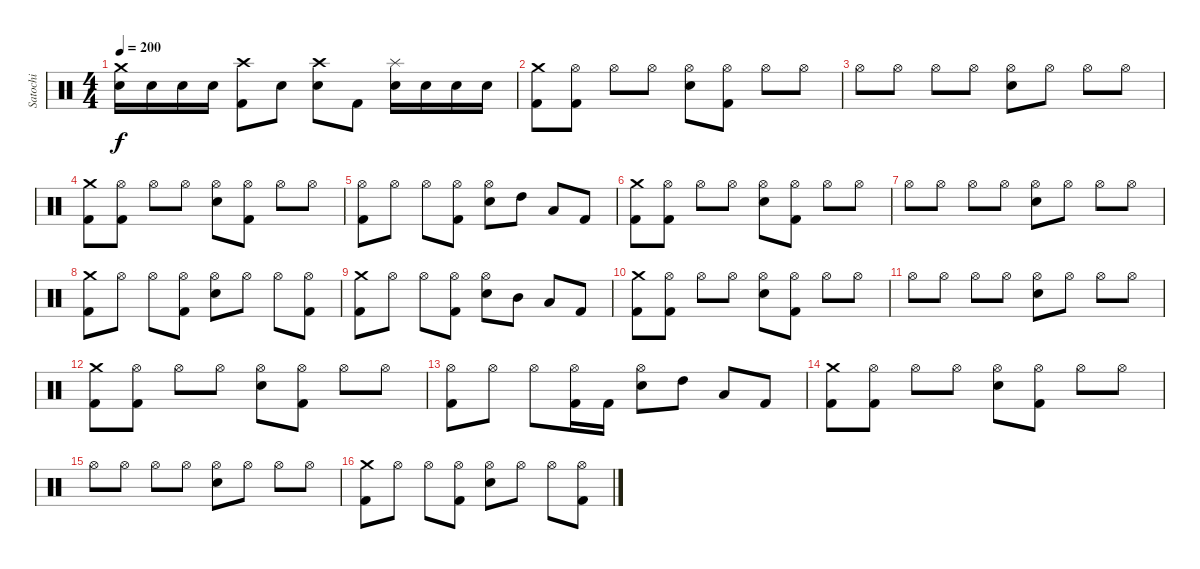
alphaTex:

\track ("Satochi" "Satochi") {instrument percussion}
\staff {score}
\articulation defaults
\ts (4 4)
\tempo 200
\clef neutral
\ks c
("Crash medium (hit)" "Electric Snare (hit)").16{dy f} "Electric Snare (hit)".16 "Electric Snare (hit)".16 "Electric Snare (hit)".16 ("Crash high (hit)" "Kick (hit) 2").8 "Electric Snare (hit)".8 ("Crash high (hit)" "Electric Snare (hit)").8 "Kick (hit) 2".8 ("Splash (hit)" "Electric Snare (hit)").16 "Electric Snare (hit)".16 "Electric Snare (hit)".16 "Electric Snare (hit)".16 |
("Crash medium (hit)" "Kick (hit) 2").8 ("Hi-Hat (open)" "Kick (hit) 2").8 "Hi-Hat (open)".8 "Hi-Hat (open)".8 ("Hi-Hat (open)" "Electric Snare (hit)").8 ("Hi-Hat (open)" "Kick (hit) 2").8 "Hi-Hat (open)".8 "Hi-Hat (open)".8 |
"Hi-Hat (open)".8 "Hi-Hat (open)".8 "Hi-Hat (open)".8 "Hi-Hat (open)".8 ("Hi-Hat (open)" "Electric Snare (hit)").8 "Hi-Hat (open)".8 "Hi-Hat (open)".8 "Hi-Hat (open)".8 |
("Crash medium (hit)" "Kick (hit) 2").8 ("Hi-Hat (open)" "Kick (hit) 2").8 "Hi-Hat (open)".8 "Hi-Hat (open)".8 ("Hi-Hat (open)" "Electric Snare (hit)").8 ("Hi-Hat (open)" "Kick (hit) 2").8 "Hi-Hat (open)".8 "Hi-Hat (open)".8 |
("Hi-Hat (open)" "Kick (hit) 2").8 "Hi-Hat (open)".8 "Hi-Hat (open)".8 ("Hi-Hat (open)" "Kick (hit) 2").8 ("Hi-Hat (open)" "Electric Snare (hit)").8 "High Tom (hit)".8 "Low Tom (hit)".8 "Kick (hit) 2".8 |
("Crash medium (hit)" "Kick (hit) 2").8 ("Hi-Hat (open)" "Kick (hit) 2").8 "Hi-Hat (open)".8 "Hi-Hat (open)".8 ("Hi-Hat (open)" "Electric Snare (hit)").8 ("Hi-Hat (open)" "Kick (hit) 2").8 "Hi-Hat (open)".8 "Hi-Hat (open)".8 |
"Hi-Hat (open)".8 "Hi-Hat (open)".8 "Hi-Hat (open)".8 "Hi-Hat (open)".8 ("Hi-Hat (open)" "Electric Snare (hit)").8 "Hi-Hat (open)".8 "Hi-Hat (open)".8 "Hi-Hat (open)".8 |
("Crash medium (hit)" "Kick (hit) 2").8 "Hi-Hat (open)".8 "Hi-Hat (open)".8 ("Hi-Hat (open)" "Kick (hit) 2").8 ("Hi-Hat (open)" "Electric Snare (hit)").8 "Hi-Hat (open)".8 "Hi-Hat (open)".8 ("Hi-Hat (open)" "Kick (hit) 2").8 |
("Crash medium (hit)" "Kick (hit) 2").8 "Hi-Hat (open)".8 "Hi-Hat (open)".8 ("Hi-Hat (open)" "Kick (hit) 2").8 ("Hi-Hat (open)" "Electric Snare (hit)").8 "Mid Tom (hit)".8 "Low Tom (hit)".8 "Kick (hit) 2".8 |
("Crash medium (hit)" "Kick (hit) 2").8 ("Hi-Hat (open)" "Kick (hit) 2").8 "Hi-Hat (open)".8 "Hi-Hat (open)".8 ("Hi-Hat (open)" "Electric Snare (hit)").8 ("Hi-Hat (open)" "Kick (hit) 2").8 "Hi-Hat (open)".8 "Hi-Hat (open)".8 |
"Hi-Hat (open)".8 "Hi-Hat (open)".8 "Hi-Hat (open)".8 "Hi-Hat (open)".8 ("Hi-Hat (open)" "Electric Snare (hit)").8 "Hi-Hat (open)".8 "Hi-Hat (open)".8 "Hi-Hat (open)".8 |
("Crash medium (hit)" "Kick (hit) 2").8 ("Hi-Hat (open)" "Kick (hit) 2").8 "Hi-Hat (open)".8 "Hi-Hat (open)".8 ("Hi-Hat (open)" "Electric Snare (hit)").8 ("Hi-Hat (open)" "Kick (hit) 2").8 "Hi-Hat (open)".8 "Hi-Hat (open)".8 |
("Hi-Hat (open)" "Kick (hit) 2").8 "Hi-Hat (open)".8 "Hi-Hat (open)".8 ("Hi-Hat (open)" "Kick (hit) 2").16 "Kick (hit) 2".16 ("Hi-Hat (open)" "Electric Snare (hit)").8 "High Tom (hit)".8 "Low Tom (hit)".8 "Kick (hit) 2".8 |
("Crash medium (hit)" "Kick (hit) 2").8 ("Hi-Hat (open)" "Kick (hit) 2").8 "Hi-Hat (open)".8 "Hi-Hat (open)".8 ("Hi-Hat (open)" "Electric Snare (hit)").8 ("Hi-Hat (open)" "Kick (hit) 2").8 "Hi-Hat (open)".8 "Hi-Hat (open)".8 |
"Hi-Hat (open)".8 "Hi-Hat (open)".8 "Hi-Hat (open)".8 "Hi-Hat (open)".8 ("Hi-Hat (open)" "Electric Snare (hit)").8 "Hi-Hat (open)".8 "Hi-Hat (open)".8 "Hi-Hat (open)".8 |
("Crash medium (hit)" "Kick (hit) 2").8 "Hi-Hat (open)".8 "Hi-Hat (open)".8 ("Hi-Hat (open)" "Kick (hit) 2").8 ("Hi-Hat (open)" "Electric Snare (hit)").8 "Hi-Hat (open)".8 "Hi-Hat (open)".8 ("Hi-Hat (open)" "Kick (hit) 2").8
